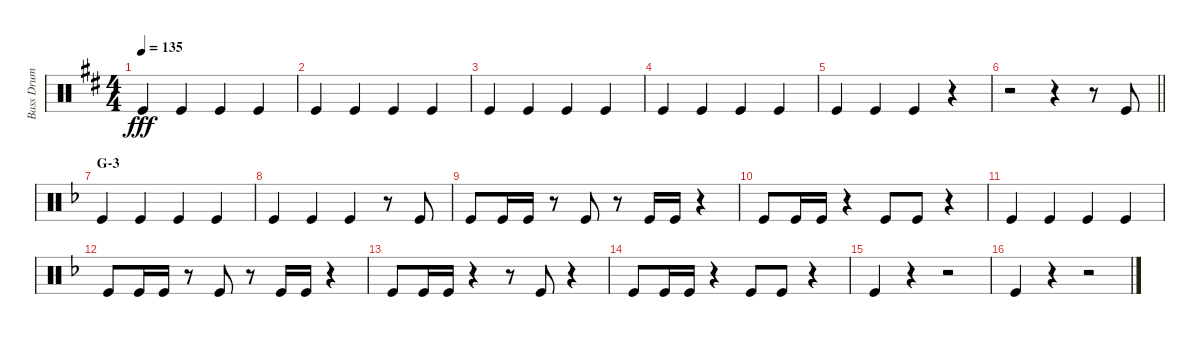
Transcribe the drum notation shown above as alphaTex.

\track ("Bass Drum" "Bass Drum") {instrument percussion}
\staff {score}
\articulation defaults
\ts (4 4)
\tempo 135
\clef neutral
\ks d "Kick (hit)".4{dy fff} "Kick (hit)".4 "Kick (hit)".4 "Kick (hit)".4
|
"Kick (hit)".4 "Kick (hit)".4 "Kick (hit)".4 "Kick (hit)".4 |
"Kick (hit)".4 "Kick (hit)".4 "Kick (hit)".4 "Kick (hit)".4 |
"Kick (hit)".4 "Kick (hit)".4 "Kick (hit)".4 "Kick (hit)".4 |
"Kick (hit)".4 "Kick (hit)".4 "Kick (hit)".4 r.4 |
\barLineRight lightlight
r.2 r.4 r.8 "Kick (hit)".8 |
\section ("" "G-3")
\ks f "Kick (hit)".4 "Kick (hit)".4 "Kick (hit)".4 "Kick (hit)".4
|
"Kick (hit)".4 "Kick (hit)".4 "Kick (hit)".4 r.8 "Kick (hit)".8 |
"Kick (hit)".8 "Kick (hit)".16 "Kick (hit)".16 r.8 "Kick (hit)".8 r.8 "Kick (hit)".16 "Kick (hit)".16 r.4 |
"Kick (hit)".8 "Kick (hit)".16 "Kick (hit)".16 r.4 "Kick (hit)".8 "Kick (hit)".8 r.4 |
"Kick (hit)".4 "Kick (hit)".4 "Kick (hit)".4 "Kick (hit)".4 |
"Kick (hit)".8 "Kick (hit)".16 "Kick (hit)".16 r.8 "Kick (hit)".8 r.8 "Kick (hit)".16 "Kick (hit)".16 r.4 |
"Kick (hit)".8 "Kick (hit)".16 "Kick (hit)".16 r.4 r.8 "Kick (hit)".8 r.4 |
"Kick (hit)".8 "Kick (hit)".16 "Kick (hit)".16 r.4 "Kick (hit)".8 "Kick (hit)".8 r.4 |
"Kick (hit)".4 r.4 r.2 |
"Kick (hit)".4 r.4 r.2
